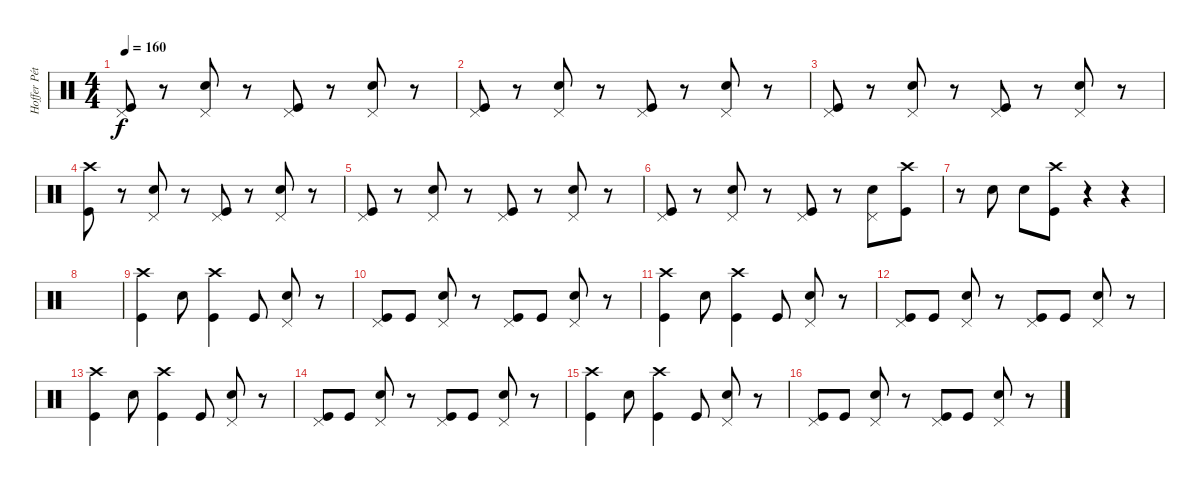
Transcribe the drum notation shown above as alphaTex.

\track ("Hoffer Péter" "Hoffer Pét") {instrument percussion}
\staff {score}
\articulation defaults
\ts (4 4)
\tempo 160
\clef neutral
\ks c
("Pedal Hi-Hat (hit)" "Kick (hit)").8{dy f} r.8 ("Pedal Hi-Hat (hit)" "Electric Snare (hit)").8 r.8 ("Pedal Hi-Hat (hit)" "Kick (hit)").8 r.8 ("Pedal Hi-Hat (hit)" "Electric Snare (hit)").8 r.8 |
("Pedal Hi-Hat (hit)" "Kick (hit)").8 r.8 ("Pedal Hi-Hat (hit)" "Electric Snare (hit)").8 r.8 ("Pedal Hi-Hat (hit)" "Kick (hit)").8 r.8 ("Pedal Hi-Hat (hit)" "Electric Snare (hit)").8 r.8 |
("Pedal Hi-Hat (hit)" "Kick (hit)").8 r.8 ("Pedal Hi-Hat (hit)" "Electric Snare (hit)").8 r.8 ("Pedal Hi-Hat (hit)" "Kick (hit)").8 r.8 ("Pedal Hi-Hat (hit)" "Electric Snare (hit)").8 r.8 |
("Crash high (hit)" "Kick (hit)").8 r.8 ("Pedal Hi-Hat (hit)" "Electric Snare (hit)").8 r.8 ("Pedal Hi-Hat (hit)" "Kick (hit)").8 r.8 ("Pedal Hi-Hat (hit)" "Electric Snare (hit)").8 r.8 |
("Pedal Hi-Hat (hit)" "Kick (hit)").8 r.8 ("Pedal Hi-Hat (hit)" "Electric Snare (hit)").8 r.8 ("Pedal Hi-Hat (hit)" "Kick (hit)").8 r.8 ("Pedal Hi-Hat (hit)" "Electric Snare (hit)").8 r.8 |
("Pedal Hi-Hat (hit)" "Kick (hit)").8 r.8 ("Pedal Hi-Hat (hit)" "Electric Snare (hit)").8 r.8 ("Pedal Hi-Hat (hit)" "Kick (hit)").8 r.8 ("Pedal Hi-Hat (hit)" "Electric Snare (hit)").8 ("Crash high (hit)" "Kick (hit)").8 |
r.8 "Electric Snare (hit)".8 "Electric Snare (hit)".8 ("Crash high (hit)" "Kick (hit)").8 r.4 r.4 |
|
("Crash high (hit)" "Kick (hit)").4 "Electric Snare (hit)".8 ("Crash high (hit)" "Kick (hit)").4 "Kick (hit)".8 ("Pedal Hi-Hat (hit)" "Electric Snare (hit)").8 r.8 |
("Pedal Hi-Hat (hit)" "Kick (hit)").8 "Kick (hit)".8 ("Pedal Hi-Hat (hit)" "Electric Snare (hit)").8 r.8 ("Pedal Hi-Hat (hit)" "Kick (hit)").8 "Kick (hit)".8 ("Pedal Hi-Hat (hit)" "Electric Snare (hit)").8 r.8 |
("Crash high (hit)" "Kick (hit)").4 "Electric Snare (hit)".8 ("Crash high (hit)" "Kick (hit)").4 "Kick (hit)".8 ("Pedal Hi-Hat (hit)" "Electric Snare (hit)").8 r.8 |
("Pedal Hi-Hat (hit)" "Kick (hit)").8 "Kick (hit)".8 ("Pedal Hi-Hat (hit)" "Electric Snare (hit)").8 r.8 ("Pedal Hi-Hat (hit)" "Kick (hit)").8 "Kick (hit)".8 ("Pedal Hi-Hat (hit)" "Electric Snare (hit)").8 r.8 |
("Crash high (hit)" "Kick (hit)").4 "Electric Snare (hit)".8 ("Crash high (hit)" "Kick (hit)").4 "Kick (hit)".8 ("Pedal Hi-Hat (hit)" "Electric Snare (hit)").8 r.8 |
("Pedal Hi-Hat (hit)" "Kick (hit)").8 "Kick (hit)".8 ("Pedal Hi-Hat (hit)" "Electric Snare (hit)").8 r.8 ("Pedal Hi-Hat (hit)" "Kick (hit)").8 "Kick (hit)".8 ("Pedal Hi-Hat (hit)" "Electric Snare (hit)").8 r.8 |
("Crash high (hit)" "Kick (hit)").4 "Electric Snare (hit)".8 ("Crash high (hit)" "Kick (hit)").4 "Kick (hit)".8 ("Pedal Hi-Hat (hit)" "Electric Snare (hit)").8 r.8 |
("Pedal Hi-Hat (hit)" "Kick (hit)").8 "Kick (hit)".8 ("Pedal Hi-Hat (hit)" "Electric Snare (hit)").8 r.8 ("Pedal Hi-Hat (hit)" "Kick (hit)").8 "Kick (hit)".8 ("Pedal Hi-Hat (hit)" "Electric Snare (hit)").8 r.8
